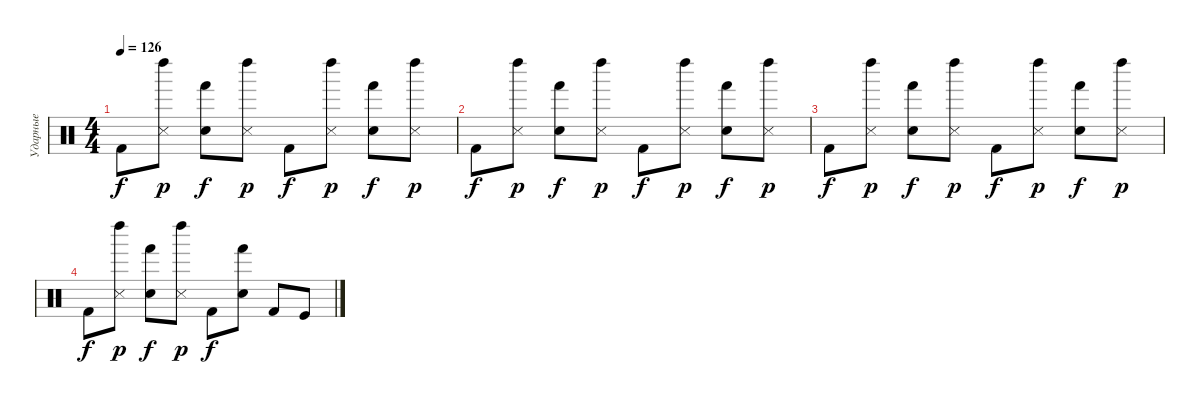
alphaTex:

\track ("Ударные" "Ударные") {instrument percussion}
\staff {score}
\articulation defaults
\ts (4 4)
\tempo 126
\clef neutral
\ks c "Kick (hit) 2".8{dy f}
("Left Maraca (hit)" "Metronome (hit)").8{dy p} ("Electric Snare (hit)" "Hand (hit)").8{dy f} ("Left Maraca (hit)" "Metronome (hit)").8{dy p} "Kick (hit) 2".8{dy f} ("Left Maraca (hit)" "Metronome (hit)").8{dy p} ("Electric Snare (hit)" "Hand (hit)").8{dy f} ("Left Maraca (hit)" "Metronome (hit)").8{dy p} |
"Kick (hit) 2".8{dy f} ("Left Maraca (hit)" "Metronome (hit)").8{dy p} ("Electric Snare (hit)" "Hand (hit)").8{dy f} ("Left Maraca (hit)" "Metronome (hit)").8{dy p} "Kick (hit) 2".8{dy f} ("Left Maraca (hit)" "Metronome (hit)").8{dy p} ("Electric Snare (hit)" "Hand (hit)").8{dy f} ("Left Maraca (hit)" "Metronome (hit)").8{dy p} |
"Kick (hit) 2".8{dy f} ("Left Maraca (hit)" "Metronome (hit)").8{dy p} ("Electric Snare (hit)" "Hand (hit)").8{dy f} ("Left Maraca (hit)" "Metronome (hit)").8{dy p} "Kick (hit) 2".8{dy f} ("Left Maraca (hit)" "Metronome (hit)").8{dy p} ("Electric Snare (hit)" "Hand (hit)").8{dy f} ("Left Maraca (hit)" "Metronome (hit)").8{dy p} |
"Kick (hit) 2".8{dy f} ("Left Maraca (hit)" "Metronome (hit)").8{dy p} ("Electric Snare (hit)" "Hand (hit)").8{dy f} ("Left Maraca (hit)" "Metronome (hit)").8{dy p} "Kick (hit) 2".8{dy f} ("Electric Snare (hit)" "Hand (hit)").8 "Kick (hit) 2".8 "Kick (hit)".8
